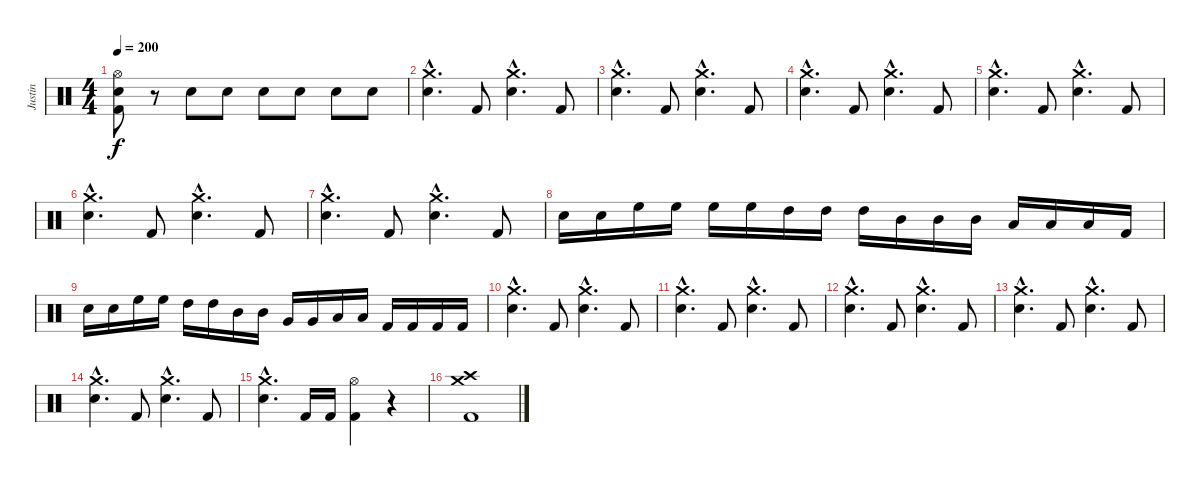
\track ("Justin" "Justin") {instrument percussion}
\staff {score}
\articulation defaults
\ts (4 4)
\tempo 200
\clef neutral
\ks c
("Hi-Hat (open)" "Electric Snare (hit)" "Kick (hit) 2").8{dy f} r.8 "Electric Snare (hit)".8 "Electric Snare (hit)".8 "Electric Snare (hit)".8 "Electric Snare (hit)".8 "Electric Snare (hit)".8 "Electric Snare (hit)".8 |
("Crash medium (hit)"{hac} "Electric Snare (hit)"{hac}).4{d} "Kick (hit) 2".8 ("Crash medium (hit)"{hac} "Electric Snare (hit)"{hac}).4{d} "Kick (hit) 2".8 |
("Crash medium (hit)"{hac} "Electric Snare (hit)"{hac}).4{d} "Kick (hit) 2".8 ("Crash medium (hit)"{hac} "Electric Snare (hit)"{hac}).4{d} "Kick (hit) 2".8 |
("Crash medium (hit)"{hac} "Electric Snare (hit)"{hac}).4{d} "Kick (hit) 2".8 ("Crash medium (hit)"{hac} "Electric Snare (hit)"{hac}).4{d} "Kick (hit) 2".8 |
("Crash medium (hit)"{hac} "Electric Snare (hit)"{hac}).4{d} "Kick (hit) 2".8 ("Crash medium (hit)"{hac} "Electric Snare (hit)"{hac}).4{d} "Kick (hit) 2".8 |
("Crash medium (hit)"{hac} "Electric Snare (hit)"{hac}).4{d} "Kick (hit) 2".8 ("Crash medium (hit)"{hac} "Electric Snare (hit)"{hac}).4{d} "Kick (hit) 2".8 |
("Crash medium (hit)"{hac} "Electric Snare (hit)"{hac}).4{d} "Kick (hit) 2".8 ("Crash medium (hit)"{hac} "Electric Snare (hit)"{hac}).4{d} "Kick (hit) 2".8 |
"Electric Snare (hit)".16 "Electric Snare (hit)".16 "High Floor Tom (hit)".16 "High Floor Tom (hit)".16 "High Floor Tom (hit)".16 "High Floor Tom (hit)".16 "High Tom (hit)".16 "High Tom (hit)".16 "High Tom (hit)".16 "Mid Tom (hit)".16 "Mid Tom (hit)".16 "Mid Tom (hit)".16 "Low Tom (hit)".16 "Low Tom (hit)".16 "Low Tom (hit)".16 "Kick (hit) 2".16 |
"Electric Snare (hit)".16 "Electric Snare (hit)".16 "High Floor Tom (hit)".16 "High Floor Tom (hit)".16 "High Tom (hit)".16 "High Tom (hit)".16 "Mid Tom (hit)".16 "Mid Tom (hit)".16 "Very Low Tom (hit)".16 "Very Low Tom (hit)".16 "Low Floor Tom (hit)".16 "Low Floor Tom (hit)".16 "Kick (hit) 2".16 "Kick (hit) 2".16 "Kick (hit) 2".16 "Kick (hit) 2".16 |
("Crash medium (hit)"{hac} "Electric Snare (hit)"{hac}).4{d} "Kick (hit) 2".8 ("Crash medium (hit)"{hac} "Electric Snare (hit)"{hac}).4{d} "Kick (hit) 2".8 |
("Crash medium (hit)"{hac} "Electric Snare (hit)"{hac}).4{d} "Kick (hit) 2".8 ("Crash medium (hit)"{hac} "Electric Snare (hit)"{hac}).4{d} "Kick (hit) 2".8 |
("Crash medium (hit)"{hac} "Electric Snare (hit)"{hac}).4{d} "Kick (hit) 2".8 ("Crash medium (hit)"{hac} "Electric Snare (hit)"{hac}).4{d} "Kick (hit) 2".8 |
("Crash medium (hit)"{hac} "Electric Snare (hit)"{hac}).4{d} "Kick (hit) 2".8 ("Crash medium (hit)"{hac} "Electric Snare (hit)"{hac}).4{d} "Kick (hit) 2".8 |
("Crash medium (hit)"{hac} "Electric Snare (hit)"{hac}).4{d} "Kick (hit) 2".8 ("Crash medium (hit)"{hac} "Electric Snare (hit)"{hac}).4{d} "Kick (hit) 2".8 |
("Crash medium (hit)"{hac} "Electric Snare (hit)"{hac}).4{d} "Kick (hit) 2".16 "Kick (hit) 2".16 ("Hi-Hat (open)" "Kick (hit) 2").4 r.4 |
("Crash medium (hit)" "Crash high (hit)" "Kick (hit) 2").1
